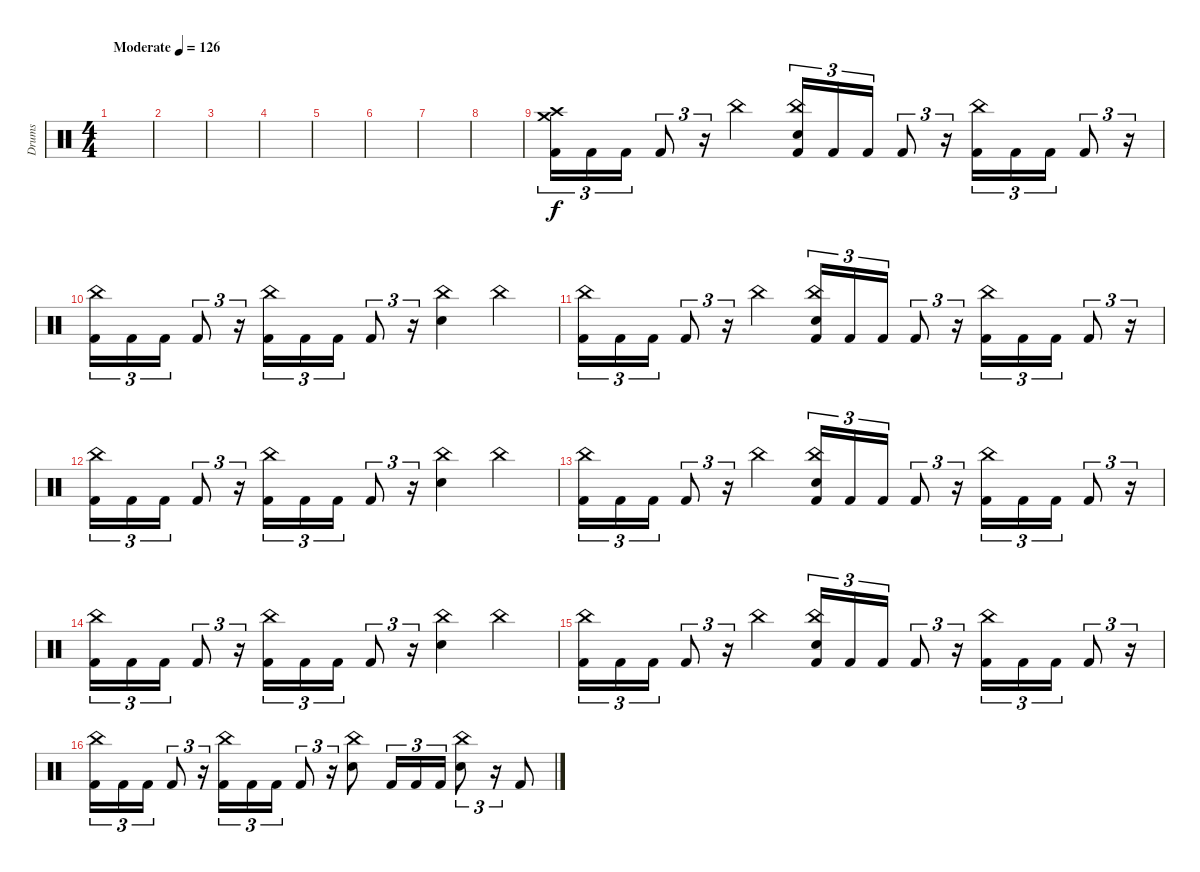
\track ("Drums" "Drums") {instrument percussion}
\staff {score}
\articulation defaults
\ts (4 4)
\tempo (126 "Moderate")
\clef neutral
\ks c
|
|
|
|
|
|
|
|
("Crash medium (hit)" "Crash high (hit)" "Kick (hit) 2").16{tu (3 2)} "Kick (hit) 2".16{tu (3 2)} "Kick (hit) 2".16{tu (3 2)} "Kick (hit) 2".8{tu (3 2)} r.16{tu (3 2)} "China (hit)".4 ("China (hit)" "Electric Snare (hit)" "Kick (hit) 2").16{tu (3 2)} "Kick (hit) 2".16{tu (3 2)} "Kick (hit) 2".16{tu (3 2)} "Kick (hit) 2".8{tu (3 2)} r.16{tu (3 2)} ("China (hit)" "Kick (hit) 2").16{tu (3 2)} "Kick (hit) 2".16{tu (3 2)} "Kick (hit) 2".16{tu (3 2)} "Kick (hit) 2".8{tu (3 2)} r.16{tu (3 2)} |
("China (hit)" "Kick (hit) 2").16{tu (3 2)} "Kick (hit) 2".16{tu (3 2)} "Kick (hit) 2".16{tu (3 2)} "Kick (hit) 2".8{tu (3 2)} r.16{tu (3 2)} ("China (hit)" "Kick (hit) 2").16{tu (3 2)} "Kick (hit) 2".16{tu (3 2)} "Kick (hit) 2".16{tu (3 2)} "Kick (hit) 2".8{tu (3 2)} r.16{tu (3 2)} ("China (hit)" "Electric Snare (hit)").4 "China (hit)".4 |
("China (hit)" "Kick (hit) 2").16{tu (3 2)} "Kick (hit) 2".16{tu (3 2)} "Kick (hit) 2".16{tu (3 2)} "Kick (hit) 2".8{tu (3 2)} r.16{tu (3 2)} "China (hit)".4 ("China (hit)" "Electric Snare (hit)" "Kick (hit) 2").16{tu (3 2)} "Kick (hit) 2".16{tu (3 2)} "Kick (hit) 2".16{tu (3 2)} "Kick (hit) 2".8{tu (3 2)} r.16{tu (3 2)} ("China (hit)" "Kick (hit) 2").16{tu (3 2)} "Kick (hit) 2".16{tu (3 2)} "Kick (hit) 2".16{tu (3 2)} "Kick (hit) 2".8{tu (3 2)} r.16{tu (3 2)} |
("China (hit)" "Kick (hit) 2").16{tu (3 2)} "Kick (hit) 2".16{tu (3 2)} "Kick (hit) 2".16{tu (3 2)} "Kick (hit) 2".8{tu (3 2)} r.16{tu (3 2)} ("China (hit)" "Kick (hit) 2").16{tu (3 2)} "Kick (hit) 2".16{tu (3 2)} "Kick (hit) 2".16{tu (3 2)} "Kick (hit) 2".8{tu (3 2)} r.16{tu (3 2)} ("China (hit)" "Electric Snare (hit)").4 "China (hit)".4 |
("China (hit)" "Kick (hit) 2").16{tu (3 2)} "Kick (hit) 2".16{tu (3 2)} "Kick (hit) 2".16{tu (3 2)} "Kick (hit) 2".8{tu (3 2)} r.16{tu (3 2)} "China (hit)".4 ("China (hit)" "Electric Snare (hit)" "Kick (hit) 2").16{tu (3 2)} "Kick (hit) 2".16{tu (3 2)} "Kick (hit) 2".16{tu (3 2)} "Kick (hit) 2".8{tu (3 2)} r.16{tu (3 2)} ("China (hit)" "Kick (hit) 2").16{tu (3 2)} "Kick (hit) 2".16{tu (3 2)} "Kick (hit) 2".16{tu (3 2)} "Kick (hit) 2".8{tu (3 2)} r.16{tu (3 2)} |
("China (hit)" "Kick (hit) 2").16{tu (3 2)} "Kick (hit) 2".16{tu (3 2)} "Kick (hit) 2".16{tu (3 2)} "Kick (hit) 2".8{tu (3 2)} r.16{tu (3 2)} ("China (hit)" "Kick (hit) 2").16{tu (3 2)} "Kick (hit) 2".16{tu (3 2)} "Kick (hit) 2".16{tu (3 2)} "Kick (hit) 2".8{tu (3 2)} r.16{tu (3 2)} ("China (hit)" "Electric Snare (hit)").4 "China (hit)".4 |
("China (hit)" "Kick (hit) 2").16{tu (3 2)} "Kick (hit) 2".16{tu (3 2)} "Kick (hit) 2".16{tu (3 2)} "Kick (hit) 2".8{tu (3 2)} r.16{tu (3 2)} "China (hit)".4 ("China (hit)" "Electric Snare (hit)" "Kick (hit) 2").16{tu (3 2)} "Kick (hit) 2".16{tu (3 2)} "Kick (hit) 2".16{tu (3 2)} "Kick (hit) 2".8{tu (3 2)} r.16{tu (3 2)} ("China (hit)" "Kick (hit) 2").16{tu (3 2)} "Kick (hit) 2".16{tu (3 2)} "Kick (hit) 2".16{tu (3 2)} "Kick (hit) 2".8{tu (3 2)} r.16{tu (3 2)} |
("China (hit)" "Kick (hit) 2").16{tu (3 2)} "Kick (hit) 2".16{tu (3 2)} "Kick (hit) 2".16{tu (3 2)} "Kick (hit) 2".8{tu (3 2)} r.16{tu (3 2)} ("China (hit)" "Kick (hit) 2").16{tu (3 2)} "Kick (hit) 2".16{tu (3 2)} "Kick (hit) 2".16{tu (3 2)} "Kick (hit) 2".8{tu (3 2)} r.16{tu (3 2)} ("China (hit)" "Electric Snare (hit)").8 "Kick (hit) 2".16{tu (3 2)} "Kick (hit) 2".16{tu (3 2)} "Kick (hit) 2".16{tu (3 2)} ("China (hit)" "Electric Snare (hit)").8{tu (3 2)} r.16{tu (3 2)} "Kick (hit) 2".8
